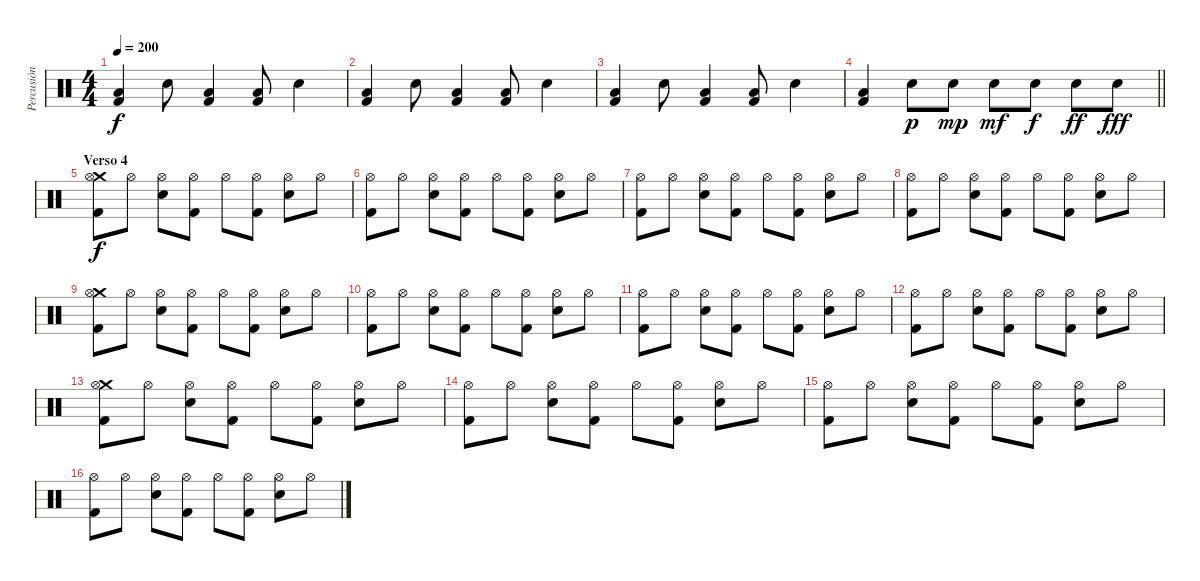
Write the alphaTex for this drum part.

\track ("Percusión" "Percusión") {instrument percussion}
\staff {score}
\articulation defaults
\ts (4 4)
\tempo 200
\clef neutral
\ks c
("Low Floor Tom (hit)" "Kick (hit) 2").4{dy f} "Snare (hit) 2".8 ("Low Floor Tom (hit)" "Kick (hit) 2").4 ("Low Floor Tom (hit)" "Kick (hit) 2").8 "Snare (hit) 2".4 |
("Low Floor Tom (hit)" "Kick (hit) 2").4 "Snare (hit) 2".8 ("Low Floor Tom (hit)" "Kick (hit) 2").4 ("Low Floor Tom (hit)" "Kick (hit) 2").8 "Snare (hit) 2".4 |
("Low Floor Tom (hit)" "Kick (hit) 2").4 "Snare (hit) 2".8 ("Low Floor Tom (hit)" "Kick (hit) 2").4 ("Low Floor Tom (hit)" "Kick (hit) 2").8 "Snare (hit) 2".4 |
\barLineRight lightlight
("Low Floor Tom (hit)" "Kick (hit) 2").4 "Snare (hit) 2".8{dy p} "Snare (hit) 2".8{dy mp} "Snare (hit) 2".8{dy mf} "Snare (hit) 2".8{dy f} "Snare (hit) 2".8{dy ff} "Snare (hit) 2".8{dy fff} |
\section ("" "Verso 4")
("Crash medium (hit)" "Hi-Hat (open)" "Kick (hit) 2").8{dy f} "Hi-Hat (open)".8 ("Hi-Hat (open)" "Snare (hit) 2").8 ("Hi-Hat (open)" "Kick (hit) 2").8 "Hi-Hat (open)".8 ("Hi-Hat (open)" "Kick (hit) 2").8 ("Hi-Hat (open)" "Snare (hit) 2").8 "Hi-Hat (open)".8 |
("Hi-Hat (open)" "Kick (hit) 2").8 "Hi-Hat (open)".8 ("Hi-Hat (open)" "Snare (hit) 2").8 ("Hi-Hat (open)" "Kick (hit) 2").8 "Hi-Hat (open)".8 ("Hi-Hat (open)" "Kick (hit) 2").8 ("Hi-Hat (open)" "Snare (hit) 2").8 "Hi-Hat (open)".8 |
("Hi-Hat (open)" "Kick (hit) 2").8 "Hi-Hat (open)".8 ("Hi-Hat (open)" "Snare (hit) 2").8 ("Hi-Hat (open)" "Kick (hit) 2").8 "Hi-Hat (open)".8 ("Hi-Hat (open)" "Kick (hit) 2").8 ("Hi-Hat (open)" "Snare (hit) 2").8 "Hi-Hat (open)".8 |
("Hi-Hat (open)" "Kick (hit) 2").8 "Hi-Hat (open)".8 ("Hi-Hat (open)" "Snare (hit) 2").8 ("Hi-Hat (open)" "Kick (hit) 2").8 "Hi-Hat (open)".8 ("Hi-Hat (open)" "Kick (hit) 2").8 ("Hi-Hat (open)" "Snare (hit) 2").8 "Hi-Hat (open)".8 |
("Crash medium (hit)" "Hi-Hat (open)" "Kick (hit) 2").8 "Hi-Hat (open)".8 ("Hi-Hat (open)" "Snare (hit) 2").8 ("Hi-Hat (open)" "Kick (hit) 2").8 "Hi-Hat (open)".8 ("Hi-Hat (open)" "Kick (hit) 2").8 ("Hi-Hat (open)" "Snare (hit) 2").8 "Hi-Hat (open)".8 |
("Hi-Hat (open)" "Kick (hit) 2").8 "Hi-Hat (open)".8 ("Hi-Hat (open)" "Snare (hit) 2").8 ("Hi-Hat (open)" "Kick (hit) 2").8 "Hi-Hat (open)".8 ("Hi-Hat (open)" "Kick (hit) 2").8 ("Hi-Hat (open)" "Snare (hit) 2").8 "Hi-Hat (open)".8 |
("Hi-Hat (open)" "Kick (hit) 2").8 "Hi-Hat (open)".8 ("Hi-Hat (open)" "Snare (hit) 2").8 ("Hi-Hat (open)" "Kick (hit) 2").8 "Hi-Hat (open)".8 ("Hi-Hat (open)" "Kick (hit) 2").8 ("Hi-Hat (open)" "Snare (hit) 2").8 "Hi-Hat (open)".8 |
("Hi-Hat (open)" "Kick (hit) 2").8 "Hi-Hat (open)".8 ("Hi-Hat (open)" "Snare (hit) 2").8 ("Hi-Hat (open)" "Kick (hit) 2").8 "Hi-Hat (open)".8 ("Hi-Hat (open)" "Kick (hit) 2").8 ("Hi-Hat (open)" "Snare (hit) 2").8 "Hi-Hat (open)".8 |
("Crash medium (hit)" "Hi-Hat (open)" "Kick (hit) 2").8 "Hi-Hat (open)".8 ("Hi-Hat (open)" "Snare (hit) 2").8 ("Hi-Hat (open)" "Kick (hit) 2").8 "Hi-Hat (open)".8 ("Hi-Hat (open)" "Kick (hit) 2").8 ("Hi-Hat (open)" "Snare (hit) 2").8 "Hi-Hat (open)".8 |
("Hi-Hat (open)" "Kick (hit) 2").8 "Hi-Hat (open)".8 ("Hi-Hat (open)" "Snare (hit) 2").8 ("Hi-Hat (open)" "Kick (hit) 2").8 "Hi-Hat (open)".8 ("Hi-Hat (open)" "Kick (hit) 2").8 ("Hi-Hat (open)" "Snare (hit) 2").8 "Hi-Hat (open)".8 |
("Hi-Hat (open)" "Kick (hit) 2").8 "Hi-Hat (open)".8 ("Hi-Hat (open)" "Snare (hit) 2").8 ("Hi-Hat (open)" "Kick (hit) 2").8 "Hi-Hat (open)".8 ("Hi-Hat (open)" "Kick (hit) 2").8 ("Hi-Hat (open)" "Snare (hit) 2").8 "Hi-Hat (open)".8 |
("Hi-Hat (open)" "Kick (hit) 2").8 "Hi-Hat (open)".8 ("Hi-Hat (open)" "Snare (hit) 2").8 ("Hi-Hat (open)" "Kick (hit) 2").8 "Hi-Hat (open)".8 ("Hi-Hat (open)" "Kick (hit) 2").8 ("Hi-Hat (open)" "Snare (hit) 2").8 "Hi-Hat (open)".8
